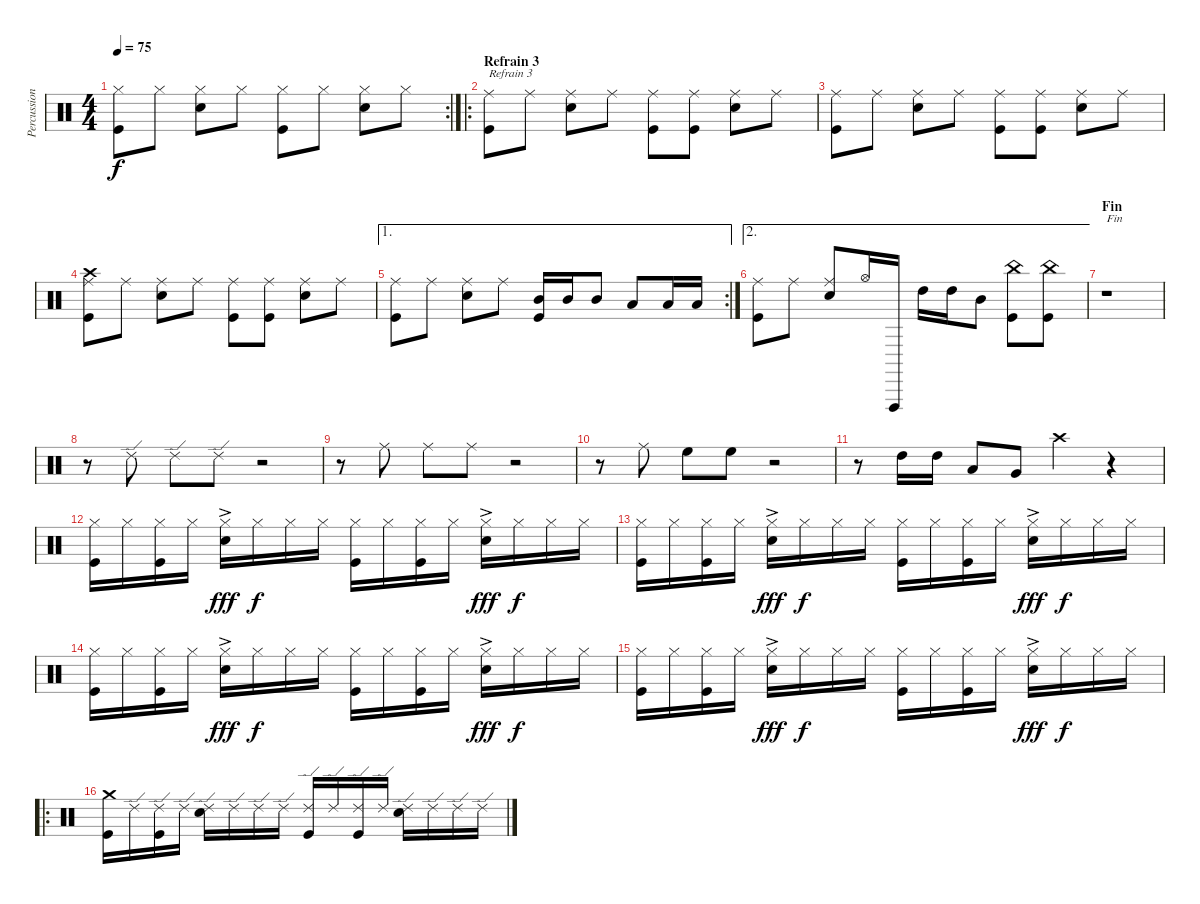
\track ("Percussions" "Percussion") {instrument percussion}
\staff {score}
\articulation defaults
\rc 2
\ts (4 4)
\tempo 75
\clef neutral
\ks c
("Hi-Hat (closed)" "Kick (hit)").8{dy f} "Hi-Hat (closed)".8 ("Hi-Hat (closed)" "Snare (hit) 2").8 "Hi-Hat (closed)".8 ("Hi-Hat (closed)" "Kick (hit)").8 "Hi-Hat (closed)".8 ("Hi-Hat (closed)" "Snare (hit) 2").8 "Hi-Hat (closed)".8 |
\ro
\section ("" "Refrain 3")
("Ride (middle)" "Kick (hit)").8{txt "Refrain 3"} "Ride (middle)".8 ("Ride (middle)" "Snare (hit) 2").8 "Ride (middle)".8 ("Ride (middle)" "Kick (hit)").8 ("Ride (middle)" "Kick (hit)").8 ("Ride (middle)" "Snare (hit) 2").8 "Ride (middle)".8 |
("Ride (middle)" "Kick (hit)").8 "Ride (middle)".8 ("Ride (middle)" "Snare (hit) 2").8 "Ride (middle)".8 ("Ride (middle)" "Kick (hit)").8 ("Ride (middle)" "Kick (hit)").8 ("Ride (middle)" "Snare (hit) 2").8 "Ride (middle)".8 |
("Ride (middle)" "Crash high (hit)" "Kick (hit)").8 "Ride (middle)".8 ("Ride (middle)" "Snare (hit) 2").8 "Ride (middle)".8 ("Ride (middle)" "Kick (hit)").8 ("Ride (middle)" "Kick (hit)").8 ("Ride (middle)" "Snare (hit) 2").8 "Ride (middle)".8 |
\ae 1
\rc 2
("Ride (middle)" "Kick (hit)").8 "Ride (middle)".8 ("Ride (middle)" "Snare (hit) 2").8 "Ride (middle)".8 ("Mid Tom (hit)" "Kick (hit)").16 "Mid Tom (hit)".16 "Mid Tom (hit)".8 "Low Tom (hit)".8 "Low Tom (hit)".16 "Low Floor Tom (hit)".16 |
\ae 2
("Ride (middle)" "Kick (hit)").8 "Ride (middle)".8 ("Ride (middle)" "Snare (hit) 2").8 "Hi-Hat (open)".16 "Vibraslap (hit)".16 "High Tom (hit)".16 "High Tom (hit)".16 "Mid Tom (hit)".8 ("China (hit)" "Kick (hit)").8 ("China (hit)" "Kick (hit)").8 |
\section ("" "Fin")
r.1{txt "Fin"} |
r.8 "Ride (edge) 2".8 "Ride (edge) 2".8 "Ride (edge) 2".8 r.2 |
r.8 "Ride (middle)".8 "Ride (middle)".8 "Ride (middle)".8 r.2 |
r.8 "Ride (middle)".8 "High Floor Tom (hit)".8 "High Floor Tom (hit)".8 r.2 |
r.8 "High Tom (hit)".16 "High Tom (hit)".16 "Low Tom (hit)".8 "Very Low Tom (hit)".8 "Crash high (hit)".4 r.4 |
("Hi-Hat (closed)" "Kick (hit)").16 "Hi-Hat (closed)".16 ("Hi-Hat (closed)" "Kick (hit)").16 "Hi-Hat (closed)".16 ("Hi-Hat (closed)" "Snare (hit) 2"{ac}).16{dy fff} "Hi-Hat (closed)".16{dy f} "Hi-Hat (closed)".16 "Hi-Hat (closed)".16 ("Hi-Hat (closed)" "Kick (hit)").16 "Hi-Hat (closed)".16 ("Hi-Hat (closed)" "Kick (hit)").16 "Hi-Hat (closed)".16 ("Hi-Hat (closed)" "Snare (hit) 2"{ac}).16{dy fff} "Hi-Hat (closed)".16{dy f} "Hi-Hat (closed)".16 "Hi-Hat (closed)".16 |
("Hi-Hat (closed)" "Kick (hit)").16 "Hi-Hat (closed)".16 ("Hi-Hat (closed)" "Kick (hit)").16 "Hi-Hat (closed)".16 ("Hi-Hat (closed)" "Snare (hit) 2"{ac}).16{dy fff} "Hi-Hat (closed)".16{dy f} "Hi-Hat (closed)".16 "Hi-Hat (closed)".16 ("Hi-Hat (closed)" "Kick (hit)").16 "Hi-Hat (closed)".16 ("Hi-Hat (closed)" "Kick (hit)").16 "Hi-Hat (closed)".16 ("Hi-Hat (closed)" "Snare (hit) 2"{ac}).16{dy fff} "Hi-Hat (closed)".16{dy f} "Hi-Hat (closed)".16 "Hi-Hat (closed)".16 |
("Hi-Hat (closed)" "Kick (hit)").16 "Hi-Hat (closed)".16 ("Hi-Hat (closed)" "Kick (hit)").16 "Hi-Hat (closed)".16 ("Hi-Hat (closed)" "Snare (hit) 2"{ac}).16{dy fff} "Hi-Hat (closed)".16{dy f} "Hi-Hat (closed)".16 "Hi-Hat (closed)".16 ("Hi-Hat (closed)" "Kick (hit)").16 "Hi-Hat (closed)".16 ("Hi-Hat (closed)" "Kick (hit)").16 "Hi-Hat (closed)".16 ("Hi-Hat (closed)" "Snare (hit) 2"{ac}).16{dy fff} "Hi-Hat (closed)".16{dy f} "Hi-Hat (closed)".16 "Hi-Hat (closed)".16 |
("Hi-Hat (closed)" "Kick (hit)").16 "Hi-Hat (closed)".16 ("Hi-Hat (closed)" "Kick (hit)").16 "Hi-Hat (closed)".16 ("Hi-Hat (closed)" "Snare (hit) 2"{ac}).16{dy fff} "Hi-Hat (closed)".16{dy f} "Hi-Hat (closed)".16 "Hi-Hat (closed)".16 ("Hi-Hat (closed)" "Kick (hit)").16 "Hi-Hat (closed)".16 ("Hi-Hat (closed)" "Kick (hit)").16 "Hi-Hat (closed)".16 ("Hi-Hat (closed)" "Snare (hit) 2"{ac}).16{dy fff} "Hi-Hat (closed)".16{dy f} "Hi-Hat (closed)".16 "Hi-Hat (closed)".16 |
\ro
("Crash medium (hit)" "Kick (hit)").16 "Ride (edge) 2".16 ("Ride (edge) 2" "Kick (hit)").16 "Ride (edge) 2".16 ("Ride (edge) 2" "Snare (hit) 2").16 "Ride (edge) 2".16 "Ride (edge) 2".16 "Ride (edge) 2".16 ("Ride (edge) 2" "Kick (hit)").16 "Ride (edge) 2".16 ("Ride (edge) 2" "Kick (hit)").16 "Ride (edge) 2".16 ("Ride (edge) 2" "Snare (hit) 2").16 "Ride (edge) 2".16 "Ride (edge) 2".16 "Ride (edge) 2".16
